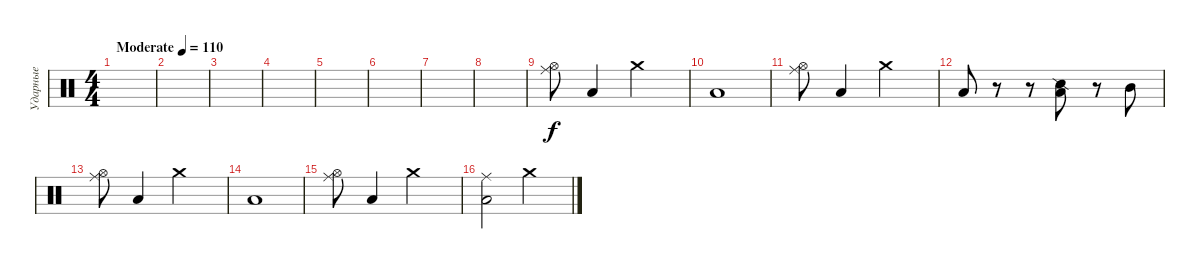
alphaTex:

\track ("Ударные" "Ударные") {instrument percussion}
\staff {score}
\articulation defaults
\ts (4 4)
\tempo (110 "Moderate")
\clef neutral
\ks c
|
|
|
|
|
|
|
|
("Hi-Hat (open)" "Ride (middle)").8 "Low Floor Tom (hit)".4 "Crash medium (hit)".2 |
"Low Floor Tom (hit)".1 |
("Hi-Hat (open)" "Ride (middle)").8 "Low Floor Tom (hit)".4 "Crash medium (hit)".2 |
"Low Floor Tom (hit)".8 r.8 r.8 ("Snare (side stick) 2" "Low Floor Tom (hit)").8 r.8 "Mid Tom (hit)".8 |
("Hi-Hat (open)" "Ride (middle)").8 "Low Floor Tom (hit)".4 "Crash medium (hit)".2 |
"Low Floor Tom (hit)".1 |
("Hi-Hat (open)" "Ride (middle)").8 "Low Floor Tom (hit)".4 "Crash medium (hit)".2 |
("Low Floor Tom (hit)" "Ride (middle)").2 "Crash medium (hit)".2
